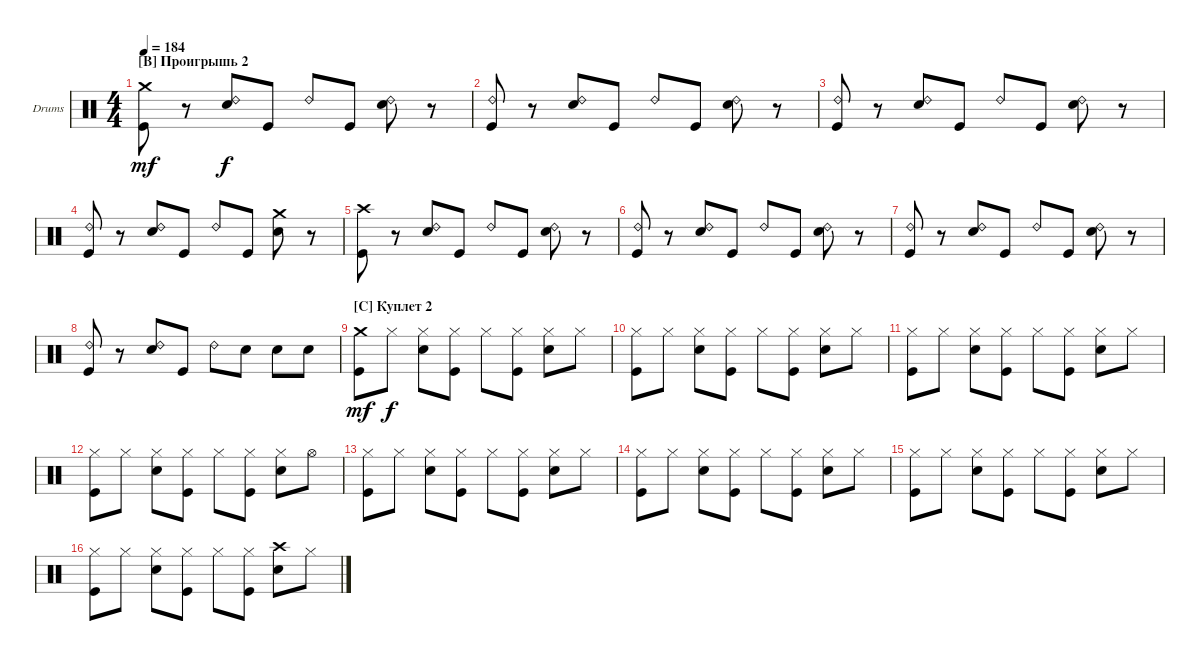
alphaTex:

\bracketExtendMode groupsimilarinstruments
\firstSystemTrackNameOrientation horizontal
\otherSystemsTrackNameOrientation horizontal
\track ("Drumkit" "Drums") {instrument percussion}
\staff {score}
\articulation defaults
\ts (4 4)
\section ("B" "Проигрышь 2")
\tempo 184
\clef neutral
\ks c
("Crash medium (hit)" "Kick (hit)").8{dy mf} r.8 ("Ride (bell) 2" "Snare (hit) 2").8{dy f} "Kick (hit)".8 "Ride (bell) 2".8 "Kick (hit)".8 ("Ride (bell) 2" "Snare (hit) 2").8 r.8 |
("Ride (bell) 2" "Kick (hit)").8 r.8 ("Ride (bell) 2" "Snare (hit) 2").8 "Kick (hit)".8 "Ride (bell) 2".8 "Kick (hit)".8 ("Ride (bell) 2" "Snare (hit) 2").8 r.8 |
("Ride (bell) 2" "Kick (hit)").8 r.8 ("Ride (bell) 2" "Snare (hit) 2").8 "Kick (hit)".8 "Ride (bell) 2".8 "Kick (hit)".8 ("Ride (bell) 2" "Snare (hit) 2").8 r.8 |
("Ride (bell) 2" "Kick (hit)").8 r.8 ("Ride (bell) 2" "Snare (hit) 2").8 "Kick (hit)".8 "Ride (bell) 2".8 "Kick (hit)".8 ("Crash medium (hit)" "Snare (hit) 2").8 r.8 |
("Crash high (hit)" "Kick (hit)").8 r.8 ("Ride (bell) 2" "Snare (hit) 2").8 "Kick (hit)".8 "Ride (bell) 2".8 "Kick (hit)".8 ("Ride (bell) 2" "Snare (hit) 2").8 r.8 |
("Ride (bell) 2" "Kick (hit)").8 r.8 ("Ride (bell) 2" "Snare (hit) 2").8 "Kick (hit)".8 "Ride (bell) 2".8 "Kick (hit)".8 ("Ride (bell) 2" "Snare (hit) 2").8 r.8 |
("Ride (bell) 2" "Kick (hit)").8 r.8 ("Ride (bell) 2" "Snare (hit) 2").8 "Kick (hit)".8 "Ride (bell) 2".8 "Kick (hit)".8 ("Ride (bell) 2" "Snare (hit) 2").8 r.8 |
("Ride (bell) 2" "Kick (hit)").8 r.8 ("Ride (bell) 2" "Snare (hit) 2").8 "Kick (hit)".8 "Ride (bell) 2".8 "Snare (hit) 2".8 "Snare (hit) 2".8 "Snare (hit) 2".8 |
\section ("C" "Куплет 2")
("Crash medium (hit)" "Kick (hit)").8{dy mf} "Hi-Hat (closed)".8{dy f} ("Hi-Hat (closed)" "Snare (hit) 2").8 ("Hi-Hat (closed)" "Kick (hit)").8 "Hi-Hat (closed)".8 ("Hi-Hat (closed)" "Kick (hit)").8 ("Hi-Hat (closed)" "Snare (hit) 2").8 "Hi-Hat (closed)".8 |
("Hi-Hat (closed)" "Kick (hit)").8 "Hi-Hat (closed)".8 ("Hi-Hat (closed)" "Snare (hit) 2").8 ("Hi-Hat (closed)" "Kick (hit)").8 "Hi-Hat (closed)".8 ("Hi-Hat (closed)" "Kick (hit)").8 ("Hi-Hat (closed)" "Snare (hit) 2").8 "Hi-Hat (closed)".8 |
("Hi-Hat (closed)" "Kick (hit)").8 "Hi-Hat (closed)".8 ("Hi-Hat (closed)" "Snare (hit) 2").8 ("Hi-Hat (closed)" "Kick (hit)").8 "Hi-Hat (closed)".8 ("Hi-Hat (closed)" "Kick (hit)").8 ("Hi-Hat (closed)" "Snare (hit) 2").8 "Hi-Hat (closed)".8 |
("Hi-Hat (closed)" "Kick (hit)").8 "Hi-Hat (closed)".8 ("Hi-Hat (closed)" "Snare (hit) 2").8 ("Hi-Hat (closed)" "Kick (hit)").8 "Hi-Hat (closed)".8 ("Hi-Hat (closed)" "Kick (hit)").8 ("Hi-Hat (closed)" "Snare (hit) 2").8 "Hi-Hat (open)".8 |
("Hi-Hat (closed)" "Kick (hit)").8 "Hi-Hat (closed)".8 ("Hi-Hat (closed)" "Snare (hit) 2").8 ("Hi-Hat (closed)" "Kick (hit)").8 "Hi-Hat (closed)".8 ("Hi-Hat (closed)" "Kick (hit)").8 ("Hi-Hat (closed)" "Snare (hit) 2").8 "Hi-Hat (closed)".8 |
("Hi-Hat (closed)" "Kick (hit)").8 "Hi-Hat (closed)".8 ("Hi-Hat (closed)" "Snare (hit) 2").8 ("Hi-Hat (closed)" "Kick (hit)").8 "Hi-Hat (closed)".8 ("Hi-Hat (closed)" "Kick (hit)").8 ("Hi-Hat (closed)" "Snare (hit) 2").8 "Hi-Hat (closed)".8 |
("Hi-Hat (closed)" "Kick (hit)").8 "Hi-Hat (closed)".8 ("Hi-Hat (closed)" "Snare (hit) 2").8 ("Hi-Hat (closed)" "Kick (hit)").8 "Hi-Hat (closed)".8 ("Hi-Hat (closed)" "Kick (hit)").8 ("Hi-Hat (closed)" "Snare (hit) 2").8 "Hi-Hat (closed)".8 |
("Hi-Hat (closed)" "Kick (hit)").8 "Hi-Hat (closed)".8 ("Hi-Hat (closed)" "Snare (hit) 2").8 ("Hi-Hat (closed)" "Kick (hit)").8 "Hi-Hat (closed)".8 ("Hi-Hat (closed)" "Kick (hit)").8 ("Crash high (hit)" "Snare (hit) 2").8 "Hi-Hat (closed)".8
